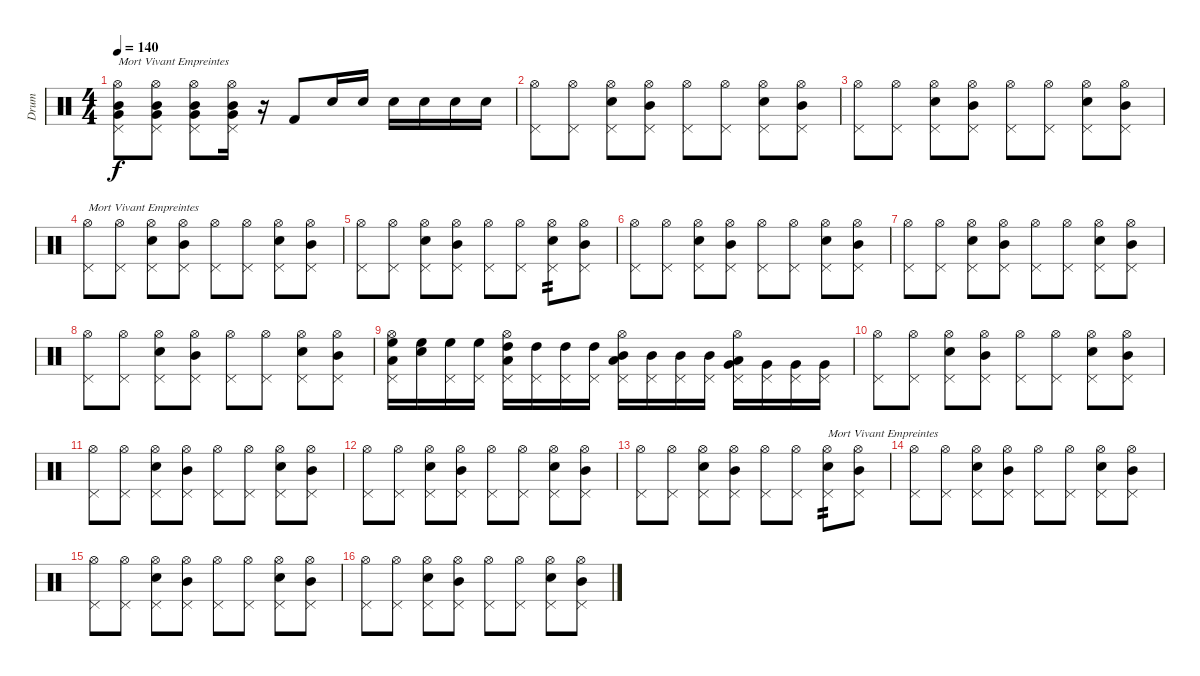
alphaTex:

\track ("Drum" "Drum") {instrument percussion}
\staff {score}
\articulation defaults
\ts (4 4)
\tempo 140
\clef neutral
\ks c
("Hi-Hat (open)" "Very Low Tom (hit)" "Mid Tom (hit)" "Pedal Hi-Hat (hit)").8{txt "Mort Vivant Empreintes" dy f} ("Hi-Hat (open)" "Very Low Tom (hit)" "Mid Tom (hit)" "Pedal Hi-Hat (hit)").8 ("Hi-Hat (open)" "Very Low Tom (hit)" "Mid Tom (hit)" "Pedal Hi-Hat (hit)").8 ("Hi-Hat (open)" "Very Low Tom (hit)" "Mid Tom (hit)" "Pedal Hi-Hat (hit)").16 r.16 "Kick (hit) 2".8 "Snare (hit) 2".16 "Snare (hit) 2".16 "Snare (hit) 2".16 "Snare (hit) 2".16 "Snare (hit) 2".16 "Snare (hit) 2".16 |
("Hi-Hat (open)" "Pedal Hi-Hat (hit)").8 ("Hi-Hat (open)" "Pedal Hi-Hat (hit)").8 ("Hi-Hat (open)" "Snare (hit) 2" "Pedal Hi-Hat (hit)").8 ("Hi-Hat (open)" "Mid Tom (hit)" "Pedal Hi-Hat (hit)").8 ("Hi-Hat (open)" "Pedal Hi-Hat (hit)").8 ("Hi-Hat (open)" "Pedal Hi-Hat (hit)").8 ("Hi-Hat (open)" "Snare (hit) 2" "Pedal Hi-Hat (hit)").8 ("Hi-Hat (open)" "Mid Tom (hit)" "Pedal Hi-Hat (hit)").8 |
("Hi-Hat (open)" "Pedal Hi-Hat (hit)").8 ("Hi-Hat (open)" "Pedal Hi-Hat (hit)").8 ("Hi-Hat (open)" "Snare (hit) 2" "Pedal Hi-Hat (hit)").8 ("Hi-Hat (open)" "Mid Tom (hit)" "Pedal Hi-Hat (hit)").8 ("Hi-Hat (open)" "Pedal Hi-Hat (hit)").8 ("Hi-Hat (open)" "Pedal Hi-Hat (hit)").8 ("Hi-Hat (open)" "Snare (hit) 2" "Pedal Hi-Hat (hit)").8 ("Hi-Hat (open)" "Mid Tom (hit)" "Pedal Hi-Hat (hit)").8 |
("Hi-Hat (open)" "Pedal Hi-Hat (hit)").8{txt "Mort Vivant Empreintes"} ("Hi-Hat (open)" "Pedal Hi-Hat (hit)").8 ("Hi-Hat (open)" "Snare (hit) 2" "Pedal Hi-Hat (hit)").8 ("Hi-Hat (open)" "Mid Tom (hit)" "Pedal Hi-Hat (hit)").8 ("Hi-Hat (open)" "Pedal Hi-Hat (hit)").8 ("Hi-Hat (open)" "Pedal Hi-Hat (hit)").8 ("Hi-Hat (open)" "Snare (hit) 2" "Pedal Hi-Hat (hit)").8 ("Hi-Hat (open)" "Mid Tom (hit)" "Pedal Hi-Hat (hit)").8 |
("Hi-Hat (open)" "Pedal Hi-Hat (hit)").8 ("Hi-Hat (open)" "Pedal Hi-Hat (hit)").8 ("Hi-Hat (open)" "Snare (hit) 2" "Pedal Hi-Hat (hit)").8 ("Hi-Hat (open)" "Mid Tom (hit)" "Pedal Hi-Hat (hit)").8 ("Hi-Hat (open)" "Pedal Hi-Hat (hit)").8 ("Hi-Hat (open)" "Pedal Hi-Hat (hit)").8 ("Hi-Hat (open)" "Snare (hit) 2" "Pedal Hi-Hat (hit)").8{tp 2} ("Hi-Hat (open)" "Mid Tom (hit)" "Pedal Hi-Hat (hit)").8 |
("Hi-Hat (open)" "Pedal Hi-Hat (hit)").8 ("Hi-Hat (open)" "Pedal Hi-Hat (hit)").8 ("Hi-Hat (open)" "Snare (hit) 2" "Pedal Hi-Hat (hit)").8 ("Hi-Hat (open)" "Mid Tom (hit)" "Pedal Hi-Hat (hit)").8 ("Hi-Hat (open)" "Pedal Hi-Hat (hit)").8 ("Hi-Hat (open)" "Pedal Hi-Hat (hit)").8 ("Hi-Hat (open)" "Snare (hit) 2" "Pedal Hi-Hat (hit)").8 ("Hi-Hat (open)" "Mid Tom (hit)" "Pedal Hi-Hat (hit)").8 |
("Hi-Hat (open)" "Pedal Hi-Hat (hit)").8 ("Hi-Hat (open)" "Pedal Hi-Hat (hit)").8 ("Hi-Hat (open)" "Snare (hit) 2" "Pedal Hi-Hat (hit)").8 ("Hi-Hat (open)" "Mid Tom (hit)" "Pedal Hi-Hat (hit)").8 ("Hi-Hat (open)" "Pedal Hi-Hat (hit)").8 ("Hi-Hat (open)" "Pedal Hi-Hat (hit)").8 ("Hi-Hat (open)" "Snare (hit) 2" "Pedal Hi-Hat (hit)").8 ("Hi-Hat (open)" "Mid Tom (hit)" "Pedal Hi-Hat (hit)").8 |
("Hi-Hat (open)" "Pedal Hi-Hat (hit)").8 ("Hi-Hat (open)" "Pedal Hi-Hat (hit)").8 ("Hi-Hat (open)" "Snare (hit) 2" "Pedal Hi-Hat (hit)").8 ("Hi-Hat (open)" "Mid Tom (hit)" "Pedal Hi-Hat (hit)").8 ("Hi-Hat (open)" "Pedal Hi-Hat (hit)").8 ("Hi-Hat (open)" "Pedal Hi-Hat (hit)").8 ("Hi-Hat (open)" "Snare (hit) 2" "Pedal Hi-Hat (hit)").8 ("Hi-Hat (open)" "Mid Tom (hit)" "Pedal Hi-Hat (hit)").8 |
("Hi-Hat (open)" "High Floor Tom (hit)" "Low Tom (hit)" "Pedal Hi-Hat (hit)").16 ("High Floor Tom (hit)" "Snare (hit)").16 ("High Floor Tom (hit)" "Pedal Hi-Hat (hit)").16 ("High Floor Tom (hit)" "Pedal Hi-Hat (hit)").16 ("Hi-Hat (open)" "High Tom (hit)" "Low Tom (hit)" "Pedal Hi-Hat (hit)").16 ("High Tom (hit)" "Pedal Hi-Hat (hit)").16 ("High Tom (hit)" "Pedal Hi-Hat (hit)").16 ("High Tom (hit)" "Pedal Hi-Hat (hit)").16 ("Hi-Hat (open)" "Mid Tom (hit)" "Low Tom (hit)" "Pedal Hi-Hat (hit)").16 ("Mid Tom (hit)" "Pedal Hi-Hat (hit)").16 ("Mid Tom (hit)" "Pedal Hi-Hat (hit)").16 ("Mid Tom (hit)" "Pedal Hi-Hat (hit)").16 ("Hi-Hat (open)" "Very Low Tom (hit)" "Low Tom (hit)" "Pedal Hi-Hat (hit)").16 ("Very Low Tom (hit)" "Pedal Hi-Hat (hit)").16 ("Very Low Tom (hit)" "Pedal Hi-Hat (hit)").16 ("Very Low Tom (hit)" "Pedal Hi-Hat (hit)").16 |
("Hi-Hat (open)" "Pedal Hi-Hat (hit)").8 ("Hi-Hat (open)" "Pedal Hi-Hat (hit)").8 ("Hi-Hat (open)" "Snare (hit) 2" "Pedal Hi-Hat (hit)").8 ("Hi-Hat (open)" "Mid Tom (hit)" "Pedal Hi-Hat (hit)").8 ("Hi-Hat (open)" "Pedal Hi-Hat (hit)").8 ("Hi-Hat (open)" "Pedal Hi-Hat (hit)").8 ("Hi-Hat (open)" "Snare (hit) 2" "Pedal Hi-Hat (hit)").8 ("Hi-Hat (open)" "Mid Tom (hit)" "Pedal Hi-Hat (hit)").8 |
("Hi-Hat (open)" "Pedal Hi-Hat (hit)").8 ("Hi-Hat (open)" "Pedal Hi-Hat (hit)").8 ("Hi-Hat (open)" "Snare (hit) 2" "Pedal Hi-Hat (hit)").8 ("Hi-Hat (open)" "Mid Tom (hit)" "Pedal Hi-Hat (hit)").8 ("Hi-Hat (open)" "Pedal Hi-Hat (hit)").8 ("Hi-Hat (open)" "Pedal Hi-Hat (hit)").8 ("Hi-Hat (open)" "Snare (hit) 2" "Pedal Hi-Hat (hit)").8 ("Hi-Hat (open)" "Mid Tom (hit)" "Pedal Hi-Hat (hit)").8 |
("Hi-Hat (open)" "Pedal Hi-Hat (hit)").8 ("Hi-Hat (open)" "Pedal Hi-Hat (hit)").8 ("Hi-Hat (open)" "Snare (hit) 2" "Pedal Hi-Hat (hit)").8 ("Hi-Hat (open)" "Mid Tom (hit)" "Pedal Hi-Hat (hit)").8 ("Hi-Hat (open)" "Pedal Hi-Hat (hit)").8 ("Hi-Hat (open)" "Pedal Hi-Hat (hit)").8 ("Hi-Hat (open)" "Snare (hit) 2" "Pedal Hi-Hat (hit)").8 ("Hi-Hat (open)" "Mid Tom (hit)" "Pedal Hi-Hat (hit)").8 |
("Hi-Hat (open)" "Pedal Hi-Hat (hit)").8 ("Hi-Hat (open)" "Pedal Hi-Hat (hit)").8 ("Hi-Hat (open)" "Snare (hit) 2" "Pedal Hi-Hat (hit)").8 ("Hi-Hat (open)" "Mid Tom (hit)" "Pedal Hi-Hat (hit)").8 ("Hi-Hat (open)" "Pedal Hi-Hat (hit)").8 ("Hi-Hat (open)" "Pedal Hi-Hat (hit)").8 ("Hi-Hat (open)" "Snare (hit) 2" "Pedal Hi-Hat (hit)").8{txt "Mort Vivant Empreintes" tp 2} ("Hi-Hat (open)" "Mid Tom (hit)" "Pedal Hi-Hat (hit)").8 |
("Hi-Hat (open)" "Pedal Hi-Hat (hit)").8 ("Hi-Hat (open)" "Pedal Hi-Hat (hit)").8 ("Hi-Hat (open)" "Snare (hit) 2" "Pedal Hi-Hat (hit)").8 ("Hi-Hat (open)" "Mid Tom (hit)" "Pedal Hi-Hat (hit)").8 ("Hi-Hat (open)" "Pedal Hi-Hat (hit)").8 ("Hi-Hat (open)" "Pedal Hi-Hat (hit)").8 ("Hi-Hat (open)" "Snare (hit) 2" "Pedal Hi-Hat (hit)").8 ("Hi-Hat (open)" "Mid Tom (hit)" "Pedal Hi-Hat (hit)").8 |
("Hi-Hat (open)" "Pedal Hi-Hat (hit)").8 ("Hi-Hat (open)" "Pedal Hi-Hat (hit)").8 ("Hi-Hat (open)" "Snare (hit) 2" "Pedal Hi-Hat (hit)").8 ("Hi-Hat (open)" "Mid Tom (hit)" "Pedal Hi-Hat (hit)").8 ("Hi-Hat (open)" "Pedal Hi-Hat (hit)").8 ("Hi-Hat (open)" "Pedal Hi-Hat (hit)").8 ("Hi-Hat (open)" "Snare (hit) 2" "Pedal Hi-Hat (hit)").8 ("Hi-Hat (open)" "Mid Tom (hit)" "Pedal Hi-Hat (hit)").8 |
("Hi-Hat (open)" "Pedal Hi-Hat (hit)").8 ("Hi-Hat (open)" "Pedal Hi-Hat (hit)").8 ("Hi-Hat (open)" "Snare (hit) 2" "Pedal Hi-Hat (hit)").8 ("Hi-Hat (open)" "Mid Tom (hit)" "Pedal Hi-Hat (hit)").8 ("Hi-Hat (open)" "Pedal Hi-Hat (hit)").8 ("Hi-Hat (open)" "Pedal Hi-Hat (hit)").8 ("Hi-Hat (open)" "Snare (hit) 2" "Pedal Hi-Hat (hit)").8 ("Hi-Hat (open)" "Mid Tom (hit)" "Pedal Hi-Hat (hit)").8
